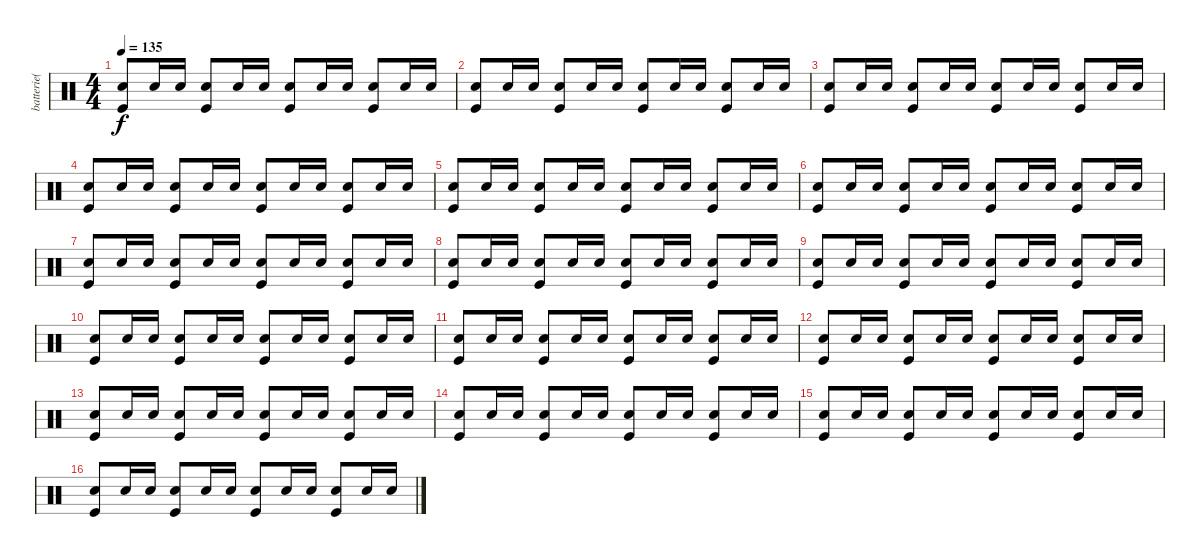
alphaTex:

\track ("batterie( Shane )" "batterie( ") {instrument percussion}
\staff {score}
\articulation defaults
\ts (4 4)
\tempo 135
\clef neutral
\ks c
("Snare (hit) 2" "Kick (hit)").8{dy f} "Snare (hit) 2".16 "Snare (hit) 2".16 ("Snare (hit) 2" "Kick (hit)").8 "Snare (hit) 2".16 "Snare (hit) 2".16 ("Snare (hit) 2" "Kick (hit)").8 "Snare (hit) 2".16 "Snare (hit) 2".16 ("Snare (hit) 2" "Kick (hit)").8 "Snare (hit) 2".16 "Snare (hit) 2".16 |
("Snare (hit) 2" "Kick (hit)").8 "Snare (hit) 2".16 "Snare (hit) 2".16 ("Snare (hit) 2" "Kick (hit)").8 "Snare (hit) 2".16 "Snare (hit) 2".16 ("Snare (hit) 2" "Kick (hit)").8 "Snare (hit) 2".16 "Snare (hit) 2".16 ("Snare (hit) 2" "Kick (hit)").8 "Snare (hit) 2".16 "Snare (hit) 2".16 |
("Snare (hit) 2" "Kick (hit)").8 "Snare (hit) 2".16 "Snare (hit) 2".16 ("Snare (hit) 2" "Kick (hit)").8 "Snare (hit) 2".16 "Snare (hit) 2".16 ("Snare (hit) 2" "Kick (hit)").8 "Snare (hit) 2".16 "Snare (hit) 2".16 ("Snare (hit) 2" "Kick (hit)").8 "Snare (hit) 2".16 "Snare (hit) 2".16 |
("Snare (hit) 2" "Kick (hit)").8 "Snare (hit) 2".16 "Snare (hit) 2".16 ("Snare (hit) 2" "Kick (hit)").8 "Snare (hit) 2".16 "Snare (hit) 2".16 ("Snare (hit) 2" "Kick (hit)").8 "Snare (hit) 2".16 "Snare (hit) 2".16 ("Snare (hit) 2" "Kick (hit)").8 "Snare (hit) 2".16 "Snare (hit) 2".16 |
("Snare (hit) 2" "Kick (hit)").8 "Snare (hit) 2".16 "Snare (hit) 2".16 ("Snare (hit) 2" "Kick (hit)").8 "Snare (hit) 2".16 "Snare (hit) 2".16 ("Snare (hit) 2" "Kick (hit)").8 "Snare (hit) 2".16 "Snare (hit) 2".16 ("Snare (hit) 2" "Kick (hit)").8 "Snare (hit) 2".16 "Snare (hit) 2".16 |
("Snare (hit) 2" "Kick (hit)").8 "Snare (hit) 2".16 "Snare (hit) 2".16 ("Snare (hit) 2" "Kick (hit)").8 "Snare (hit) 2".16 "Snare (hit) 2".16 ("Snare (hit) 2" "Kick (hit)").8 "Snare (hit) 2".16 "Snare (hit) 2".16 ("Snare (hit) 2" "Kick (hit)").8 "Snare (hit) 2".16 "Snare (hit) 2".16 |
("Snare (hit) 2" "Kick (hit)").8 "Snare (hit) 2".16 "Snare (hit) 2".16 ("Snare (hit) 2" "Kick (hit)").8 "Snare (hit) 2".16 "Snare (hit) 2".16 ("Snare (hit) 2" "Kick (hit)").8 "Snare (hit) 2".16 "Snare (hit) 2".16 ("Snare (hit) 2" "Kick (hit)").8 "Snare (hit) 2".16 "Snare (hit) 2".16 |
("Snare (hit) 2" "Kick (hit)").8 "Snare (hit) 2".16 "Snare (hit) 2".16 ("Snare (hit) 2" "Kick (hit)").8 "Snare (hit) 2".16 "Snare (hit) 2".16 ("Snare (hit) 2" "Kick (hit)").8 "Snare (hit) 2".16 "Snare (hit) 2".16 ("Snare (hit) 2" "Kick (hit)").8 "Snare (hit) 2".16 "Snare (hit) 2".16 |
("Snare (hit) 2" "Kick (hit)").8 "Snare (hit) 2".16 "Snare (hit) 2".16 ("Snare (hit) 2" "Kick (hit)").8 "Snare (hit) 2".16 "Snare (hit) 2".16 ("Snare (hit) 2" "Kick (hit)").8 "Snare (hit) 2".16 "Snare (hit) 2".16 ("Snare (hit) 2" "Kick (hit)").8 "Snare (hit) 2".16 "Snare (hit) 2".16 |
("Snare (hit) 2" "Kick (hit)").8 "Snare (hit) 2".16 "Snare (hit) 2".16 ("Snare (hit) 2" "Kick (hit)").8 "Snare (hit) 2".16 "Snare (hit) 2".16 ("Snare (hit) 2" "Kick (hit)").8 "Snare (hit) 2".16 "Snare (hit) 2".16 ("Snare (hit) 2" "Kick (hit)").8 "Snare (hit) 2".16 "Snare (hit) 2".16 |
("Snare (hit) 2" "Kick (hit)").8 "Snare (hit) 2".16 "Snare (hit) 2".16 ("Snare (hit) 2" "Kick (hit)").8 "Snare (hit) 2".16 "Snare (hit) 2".16 ("Snare (hit) 2" "Kick (hit)").8 "Snare (hit) 2".16 "Snare (hit) 2".16 ("Snare (hit) 2" "Kick (hit)").8 "Snare (hit) 2".16 "Snare (hit) 2".16 |
("Snare (hit) 2" "Kick (hit)").8 "Snare (hit) 2".16 "Snare (hit) 2".16 ("Snare (hit) 2" "Kick (hit)").8 "Snare (hit) 2".16 "Snare (hit) 2".16 ("Snare (hit) 2" "Kick (hit)").8 "Snare (hit) 2".16 "Snare (hit) 2".16 ("Snare (hit) 2" "Kick (hit)").8 "Snare (hit) 2".16 "Snare (hit) 2".16 |
("Snare (hit) 2" "Kick (hit)").8 "Snare (hit) 2".16 "Snare (hit) 2".16 ("Snare (hit) 2" "Kick (hit)").8 "Snare (hit) 2".16 "Snare (hit) 2".16 ("Snare (hit) 2" "Kick (hit)").8 "Snare (hit) 2".16 "Snare (hit) 2".16 ("Snare (hit) 2" "Kick (hit)").8 "Snare (hit) 2".16 "Snare (hit) 2".16 |
("Snare (hit) 2" "Kick (hit)").8 "Snare (hit) 2".16 "Snare (hit) 2".16 ("Snare (hit) 2" "Kick (hit)").8 "Snare (hit) 2".16 "Snare (hit) 2".16 ("Snare (hit) 2" "Kick (hit)").8 "Snare (hit) 2".16 "Snare (hit) 2".16 ("Snare (hit) 2" "Kick (hit)").8 "Snare (hit) 2".16 "Snare (hit) 2".16 |
("Snare (hit) 2" "Kick (hit)").8 "Snare (hit) 2".16 "Snare (hit) 2".16 ("Snare (hit) 2" "Kick (hit)").8 "Snare (hit) 2".16 "Snare (hit) 2".16 ("Snare (hit) 2" "Kick (hit)").8 "Snare (hit) 2".16 "Snare (hit) 2".16 ("Snare (hit) 2" "Kick (hit)").8 "Snare (hit) 2".16 "Snare (hit) 2".16 |
("Snare (hit) 2" "Kick (hit)").8 "Snare (hit) 2".16 "Snare (hit) 2".16 ("Snare (hit) 2" "Kick (hit)").8 "Snare (hit) 2".16 "Snare (hit) 2".16 ("Snare (hit) 2" "Kick (hit)").8 "Snare (hit) 2".16 "Snare (hit) 2".16 ("Snare (hit) 2" "Kick (hit)").8 "Snare (hit) 2".16 "Snare (hit) 2".16
